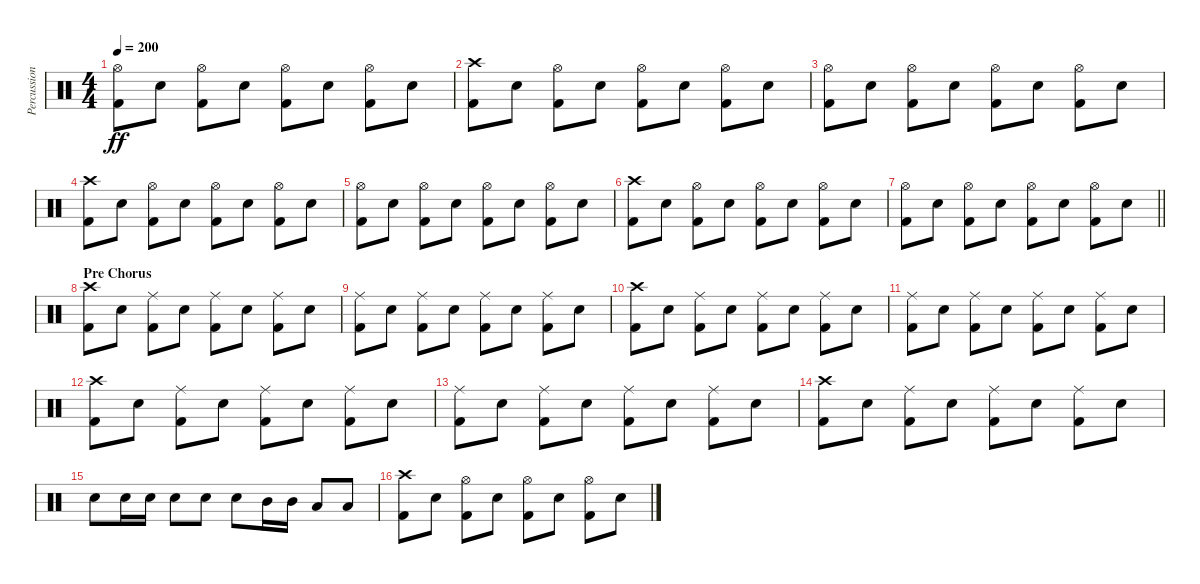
\track ("Percussion" "Percussion") {instrument percussion}
\staff {score}
\articulation defaults
\ts (4 4)
\tempo 200
\clef neutral
\ks c
("Hi-Hat (open)" "Kick (hit) 2").8{dy ff} "Snare (hit) 2".8 ("Hi-Hat (open)" "Kick (hit) 2").8 "Snare (hit) 2".8 ("Hi-Hat (open)" "Kick (hit) 2").8 "Snare (hit) 2".8 ("Hi-Hat (open)" "Kick (hit) 2").8 "Snare (hit) 2".8 |
("Crash high (hit)" "Kick (hit) 2").8 "Snare (hit) 2".8 ("Hi-Hat (open)" "Kick (hit) 2").8 "Snare (hit) 2".8 ("Hi-Hat (open)" "Kick (hit) 2").8 "Snare (hit) 2".8 ("Hi-Hat (open)" "Kick (hit) 2").8 "Snare (hit) 2".8 |
("Hi-Hat (open)" "Kick (hit) 2").8 "Snare (hit) 2".8 ("Hi-Hat (open)" "Kick (hit) 2").8 "Snare (hit) 2".8 ("Hi-Hat (open)" "Kick (hit) 2").8 "Snare (hit) 2".8 ("Hi-Hat (open)" "Kick (hit) 2").8 "Snare (hit) 2".8 |
("Crash high (hit)" "Kick (hit) 2").8 "Snare (hit) 2".8 ("Hi-Hat (open)" "Kick (hit) 2").8 "Snare (hit) 2".8 ("Hi-Hat (open)" "Kick (hit) 2").8 "Snare (hit) 2".8 ("Hi-Hat (open)" "Kick (hit) 2").8 "Snare (hit) 2".8 |
("Hi-Hat (open)" "Kick (hit) 2").8 "Snare (hit) 2".8 ("Hi-Hat (open)" "Kick (hit) 2").8 "Snare (hit) 2".8 ("Hi-Hat (open)" "Kick (hit) 2").8 "Snare (hit) 2".8 ("Hi-Hat (open)" "Kick (hit) 2").8 "Snare (hit) 2".8 |
("Crash high (hit)" "Kick (hit) 2").8 "Snare (hit) 2".8 ("Hi-Hat (open)" "Kick (hit) 2").8 "Snare (hit) 2".8 ("Hi-Hat (open)" "Kick (hit) 2").8 "Snare (hit) 2".8 ("Hi-Hat (open)" "Kick (hit) 2").8 "Snare (hit) 2".8 |
\barLineRight lightlight
("Hi-Hat (open)" "Kick (hit) 2").8 "Snare (hit) 2".8 ("Hi-Hat (open)" "Kick (hit) 2").8 "Snare (hit) 2".8 ("Hi-Hat (open)" "Kick (hit) 2").8 "Snare (hit) 2".8 ("Hi-Hat (open)" "Kick (hit) 2").8 "Snare (hit) 2".8 |
\section ("" "Pre Chorus")
("Crash high (hit)" "Kick (hit) 2").8 "Snare (hit) 2".8 ("Ride (middle)" "Kick (hit) 2").8 "Snare (hit) 2".8 ("Ride (middle)" "Kick (hit) 2").8 "Snare (hit) 2".8 ("Ride (middle)" "Kick (hit) 2").8 "Snare (hit) 2".8 |
("Ride (middle)" "Kick (hit) 2").8 "Snare (hit) 2".8 ("Ride (middle)" "Kick (hit) 2").8 "Snare (hit) 2".8 ("Ride (middle)" "Kick (hit) 2").8 "Snare (hit) 2".8 ("Ride (middle)" "Kick (hit) 2").8 "Snare (hit) 2".8 |
("Crash high (hit)" "Kick (hit) 2").8 "Snare (hit) 2".8 ("Ride (middle)" "Kick (hit) 2").8 "Snare (hit) 2".8 ("Ride (middle)" "Kick (hit) 2").8 "Snare (hit) 2".8 ("Ride (middle)" "Kick (hit) 2").8 "Snare (hit) 2".8 |
("Ride (middle)" "Kick (hit) 2").8 "Snare (hit) 2".8 ("Ride (middle)" "Kick (hit) 2").8 "Snare (hit) 2".8 ("Ride (middle)" "Kick (hit) 2").8 "Snare (hit) 2".8 ("Ride (middle)" "Kick (hit) 2").8 "Snare (hit) 2".8 |
("Crash high (hit)" "Kick (hit) 2").8 "Snare (hit) 2".8 ("Ride (middle)" "Kick (hit) 2").8 "Snare (hit) 2".8 ("Ride (middle)" "Kick (hit) 2").8 "Snare (hit) 2".8 ("Ride (middle)" "Kick (hit) 2").8 "Snare (hit) 2".8 |
("Ride (middle)" "Kick (hit) 2").8 "Snare (hit) 2".8 ("Ride (middle)" "Kick (hit) 2").8 "Snare (hit) 2".8 ("Ride (middle)" "Kick (hit) 2").8 "Snare (hit) 2".8 ("Ride (middle)" "Kick (hit) 2").8 "Snare (hit) 2".8 |
("Crash high (hit)" "Kick (hit) 2").8 "Snare (hit) 2".8 ("Ride (middle)" "Kick (hit) 2").8 "Snare (hit) 2".8 ("Ride (middle)" "Kick (hit) 2").8 "Snare (hit) 2".8 ("Ride (middle)" "Kick (hit) 2").8 "Snare (hit) 2".8 |
"Snare (hit) 2".8 "Snare (hit) 2".16 "Snare (hit) 2".16 "Snare (hit) 2".8 "Snare (hit) 2".8 "Snare (hit) 2".8 "Mid Tom (hit)".16 "Mid Tom (hit)".16 "Low Tom (hit)".8 "Low Tom (hit)".8 |
("Crash high (hit)" "Kick (hit) 2").8 "Snare (hit) 2".8 ("Hi-Hat (open)" "Kick (hit) 2").8 "Snare (hit) 2".8 ("Hi-Hat (open)" "Kick (hit) 2").8 "Snare (hit) 2".8 ("Hi-Hat (open)" "Kick (hit) 2").8 "Snare (hit) 2".8
